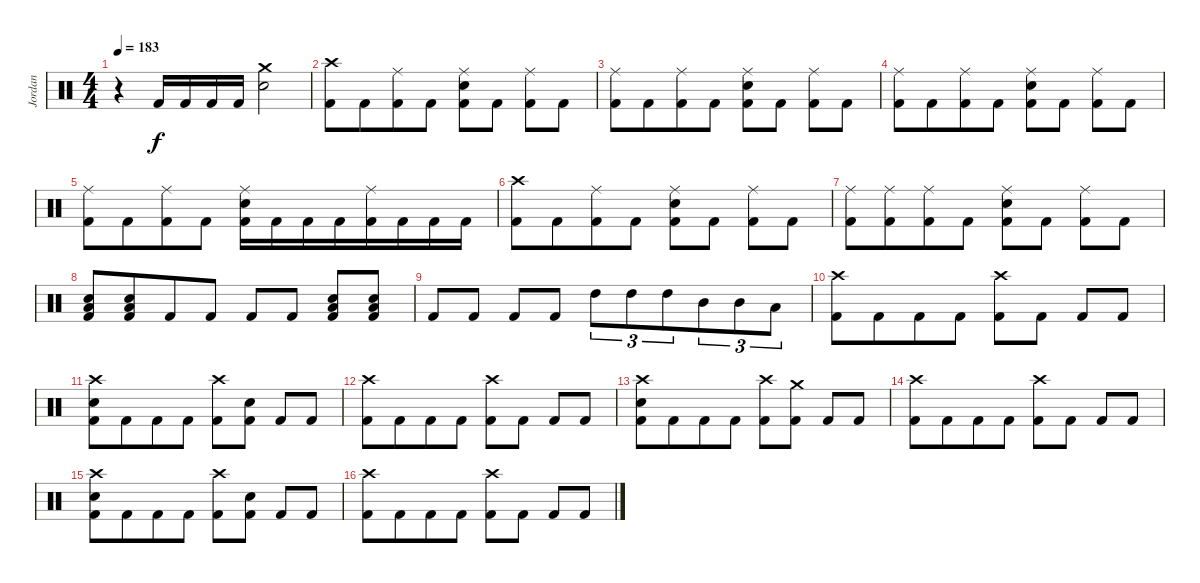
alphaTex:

\track ("Jordan" "Jordan") {instrument percussion bank 82}
\staff {score}
\articulation defaults
\ts (4 4)
\tempo 183
\clef neutral
\ks c
r.4{dy f beam merge} "Kick (hit) 2".16{beam merge} "Kick (hit) 2".16{beam merge} "Kick (hit) 2".16 "Kick (hit) 2".16 ("Crash medium (hit)" "Snare (hit) 2").2 |
("Crash high (hit)" "Kick (hit) 2").8{beam merge} "Kick (hit) 2".8{beam merge} ("Ride (middle)" "Kick (hit) 2").8{beam merge} "Kick (hit) 2".8 ("Ride (middle)" "Snare (hit) 2" "Kick (hit) 2").8 "Kick (hit) 2".8 ("Ride (middle)" "Kick (hit) 2").8 "Kick (hit) 2".8 |
("Ride (middle)" "Kick (hit) 2").8{beam merge} "Kick (hit) 2".8{beam merge} ("Ride (middle)" "Kick (hit) 2").8{beam merge} "Kick (hit) 2".8 ("Ride (middle)" "Snare (hit) 2" "Kick (hit) 2").8 "Kick (hit) 2".8 ("Ride (middle)" "Kick (hit) 2").8 "Kick (hit) 2".8 |
("Ride (middle)" "Kick (hit) 2").8{beam merge} "Kick (hit) 2".8{beam merge} ("Ride (middle)" "Kick (hit) 2").8{beam merge} "Kick (hit) 2".8 ("Ride (middle)" "Snare (hit) 2" "Kick (hit) 2").8 "Kick (hit) 2".8 ("Ride (middle)" "Kick (hit) 2").8 "Kick (hit) 2".8 |
("Ride (middle)" "Kick (hit) 2").8{beam merge} "Kick (hit) 2".8{beam merge} ("Ride (middle)" "Kick (hit) 2").8{beam merge} "Kick (hit) 2".8 ("Ride (middle)" "Snare (hit) 2" "Kick (hit) 2").16 "Kick (hit) 2".16{beam merge} "Kick (hit) 2".16 "Kick (hit) 2".16{beam merge} ("Ride (middle)" "Kick (hit) 2").16 "Kick (hit) 2".16{beam merge} "Kick (hit) 2".16{beam merge} "Kick (hit) 2".16 |
("Crash high (hit)" "Kick (hit) 2").8{beam merge} "Kick (hit) 2".8{beam merge} ("Ride (middle)" "Kick (hit) 2").8{beam merge} "Kick (hit) 2".8 ("Ride (middle)" "Snare (hit) 2" "Kick (hit) 2").8 "Kick (hit) 2".8 ("Ride (middle)" "Kick (hit) 2").8 "Kick (hit) 2".8 |
("Ride (middle)" "Kick (hit) 2").8{beam merge} ("Ride (middle)" "Kick (hit) 2").8{beam merge} ("Ride (middle)" "Kick (hit) 2").8{beam merge} "Kick (hit) 2".8 ("Ride (middle)" "Snare (hit) 2" "Kick (hit) 2").8 "Kick (hit) 2".8 ("Ride (middle)" "Kick (hit) 2").8 "Kick (hit) 2".8 |
("Snare (hit) 2" "Low Tom (hit)" "Kick (hit) 2").8 ("Snare (hit) 2" "Low Tom (hit)" "Kick (hit) 2").8{beam merge} "Kick (hit) 2".8 "Kick (hit) 2".8 "Kick (hit) 2".8{beam merge} "Kick (hit) 2".8 ("Snare (hit) 2" "Low Tom (hit)" "Kick (hit) 2").8 ("Snare (hit) 2" "Low Tom (hit)" "Kick (hit) 2").8 |
"Kick (hit) 2".8 "Kick (hit) 2".8 "Kick (hit) 2".8{beam merge} "Kick (hit) 2".8 "High Tom (hit)".8{tu (3 2)} "High Tom (hit)".8{tu (3 2)} "High Tom (hit)".8{tu (3 2) beam merge} "Mid Tom (hit)".8{tu (3 2) beam merge} "Mid Tom (hit)".8{tu (3 2) beam merge} "Low Tom (hit)".8{tu (3 2)} |
("Crash high (hit)" "Kick (hit) 2").8{beam merge} "Kick (hit) 2".8{beam merge} "Kick (hit) 2".8 "Kick (hit) 2".8 ("Crash high (hit)" "Kick (hit) 2").8 "Kick (hit) 2".8 "Kick (hit) 2".8 "Kick (hit) 2".8 |
("Crash high (hit)" "Snare (hit) 2" "Kick (hit) 2").8{beam merge} "Kick (hit) 2".8{beam merge} "Kick (hit) 2".8 "Kick (hit) 2".8 ("Crash high (hit)" "Kick (hit) 2").8 ("Snare (hit) 2" "Kick (hit) 2").8 "Kick (hit) 2".8 "Kick (hit) 2".8 |
("Crash high (hit)" "Kick (hit) 2").8{beam merge} "Kick (hit) 2".8{beam merge} "Kick (hit) 2".8 "Kick (hit) 2".8 ("Crash high (hit)" "Kick (hit) 2").8 "Kick (hit) 2".8 "Kick (hit) 2".8 "Kick (hit) 2".8 |
("Crash high (hit)" "Snare (hit) 2" "Kick (hit) 2").8{beam merge} "Kick (hit) 2".8{beam merge} "Kick (hit) 2".8 "Kick (hit) 2".8 ("Crash high (hit)" "Kick (hit) 2").8 ("Crash medium (hit)" "Kick (hit) 2").8 "Kick (hit) 2".8 "Kick (hit) 2".8 |
("Crash high (hit)" "Kick (hit) 2").8{beam merge} "Kick (hit) 2".8{beam merge} "Kick (hit) 2".8 "Kick (hit) 2".8 ("Crash high (hit)" "Kick (hit) 2").8 "Kick (hit) 2".8 "Kick (hit) 2".8 "Kick (hit) 2".8 |
("Crash high (hit)" "Snare (hit) 2" "Kick (hit) 2").8{beam merge} "Kick (hit) 2".8{beam merge} "Kick (hit) 2".8 "Kick (hit) 2".8 ("Crash high (hit)" "Kick (hit) 2").8 ("Snare (hit) 2" "Kick (hit) 2").8 "Kick (hit) 2".8 "Kick (hit) 2".8 |
("Crash high (hit)" "Kick (hit) 2").8{beam merge} "Kick (hit) 2".8{beam merge} "Kick (hit) 2".8 "Kick (hit) 2".8 ("Crash high (hit)" "Kick (hit) 2").8 "Kick (hit) 2".8 "Kick (hit) 2".8 "Kick (hit) 2".8
